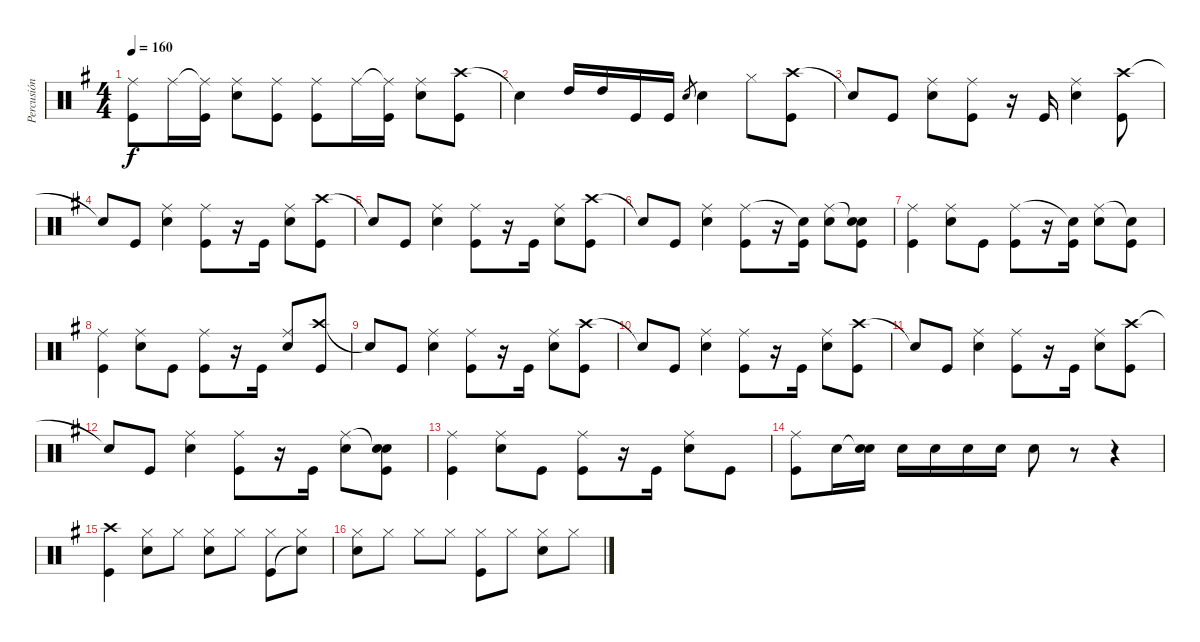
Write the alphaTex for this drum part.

\track ("Percusión" "Percusión") {instrument percussion}
\staff {score}
\articulation defaults
\ts (4 4)
\tempo 160
\clef neutral
\ks g
("Ride (middle)" "Kick (hit)").8{dy f} "Ride (middle)".16 ("Ride (middle)"{t} "Kick (hit)").16 ("Ride (middle)" "Snare (hit) 2").8 ("Ride (middle)" "Kick (hit)").8 ("Ride (middle)" "Kick (hit)").8 "Ride (middle)".16 ("Ride (middle)"{t} "Kick (hit)").16 ("Ride (middle)" "Snare (hit) 2").8 ("Crash high (hit)" "Kick (hit)").8 |
"Snare (hit)"{t}.4 "High Tom (hit)".16 "High Tom (hit)".16 "Kick (hit)".16 "Kick (hit)".16 "Snare (hit) 2".8{gr} "Snare (hit) 2".4 "Hi-Hat (closed)".8 ("Crash high (hit)" "Kick (hit)").8 |
"Snare (hit)"{t}.8 "Kick (hit)".8 ("Ride (middle)" "Snare (hit) 2").8 ("Ride (middle)" "Kick (hit)").8 r.16 "Kick (hit)".16 ("Ride (middle)" "Snare (hit) 2").4 ("Crash high (hit)" "Kick (hit)").8 |
"Snare (hit)"{t}.8 "Kick (hit)".8 ("Ride (middle)" "Snare (hit) 2").4 ("Ride (middle)" "Kick (hit)").8 r.16 "Kick (hit)".16 ("Ride (middle)" "Snare (hit) 2").8 ("Crash high (hit)" "Kick (hit)").8 |
"Snare (hit)"{t}.8 "Kick (hit)".8 ("Ride (middle)" "Snare (hit) 2").4 ("Ride (middle)" "Kick (hit)").8 r.16 "Kick (hit)".16 ("Ride (middle)" "Snare (hit) 2").8 ("Crash high (hit)" "Kick (hit)").8 |
"Snare (hit)"{t}.8 "Kick (hit)".8 ("Ride (middle)" "Snare (hit) 2").4 ("Ride (middle)" "Kick (hit)").8 r.16 ("Snare (hit)"{t} "Kick (hit)").16 ("Ride (middle)" "Snare (hit) 2").8 ("Snare (hit)"{t} "Kick (hit)" "Snare (hit)").8 |
("Ride (middle)" "Kick (hit)").4 ("Ride (middle)" "Snare (hit) 2").8 "Kick (hit)".8 ("Ride (middle)" "Kick (hit)").8 r.16 ("Snare (hit)"{t} "Kick (hit)").16 ("Ride (middle)" "Snare (hit) 2").8 ("Snare (hit)"{t} "Kick (hit)").8 |
("Ride (middle)" "Kick (hit)").4 ("Ride (middle)" "Snare (hit) 2").8 "Kick (hit)".8 ("Ride (middle)" "Kick (hit)").8 r.16 "Kick (hit)".16 ("Ride (middle)" "Snare (hit) 2").8{beam Up} ("Crash high (hit)" "Kick (hit)").8{beam Up} |
"Snare (hit)"{t}.8 "Kick (hit)".8 ("Ride (middle)" "Snare (hit) 2").4 ("Ride (middle)" "Kick (hit)").8 r.16 "Kick (hit)".16 ("Ride (middle)" "Snare (hit) 2").8 ("Crash high (hit)" "Kick (hit)").8 |
"Snare (hit)"{t}.8 "Kick (hit)".8 ("Ride (middle)" "Snare (hit) 2").4 ("Ride (middle)" "Kick (hit)").8 r.16 "Kick (hit)".16 ("Ride (middle)" "Snare (hit) 2").8 ("Crash high (hit)" "Kick (hit)").8 |
"Snare (hit)"{t}.8 "Kick (hit)".8 ("Ride (middle)" "Snare (hit) 2").4 ("Ride (middle)" "Kick (hit)").8 r.16 "Kick (hit)".16 ("Ride (middle)" "Snare (hit) 2").8 ("Crash high (hit)" "Kick (hit)").8 |
"Snare (hit)"{t}.8 "Kick (hit)".8 ("Ride (middle)" "Snare (hit) 2").4 ("Ride (middle)" "Kick (hit)").8 r.16 "Kick (hit)".16 ("Ride (middle)" "Snare (hit) 2").8 ("Snare (hit)"{t} "Kick (hit)" "Snare (hit)").8 |
("Ride (middle)" "Kick (hit)").4 ("Ride (middle)" "Snare (hit) 2").8 "Kick (hit)".8 ("Ride (middle)" "Kick (hit)").8 r.16 "Kick (hit)".16 ("Ride (middle)" "Snare (hit) 2").8 "Kick (hit)".8 |
("Ride (middle)" "Kick (hit)").8 "Snare (hit) 2".16 ("Snare (hit)"{t} "Snare (hit) 2").16 "Snare (hit) 2".16 "Snare (hit) 2".16 "Snare (hit) 2".16 "Snare (hit) 2".16 "Snare (hit) 2".8 r.8 r.4 |
("Crash high (hit)" "Kick (hit)").4 ("Hi-Hat (closed)" "Snare (hit) 2").8 "Hi-Hat (closed)".8 ("Hi-Hat (closed)" "Snare (hit) 2").8 "Hi-Hat (closed)".8 ("Hi-Hat (closed)" "Kick (hit)").8 ("Hi-Hat (closed)" "Snare (hit)"{t}).8 |
("Hi-Hat (closed)" "Snare (hit) 2").8 "Hi-Hat (closed)".8 "Hi-Hat (closed)".8 "Hi-Hat (closed)".8 ("Hi-Hat (closed)" "Kick (hit)").8 "Hi-Hat (closed)".8 ("Hi-Hat (closed)" "Snare (hit) 2").8 "Hi-Hat (closed)".8
